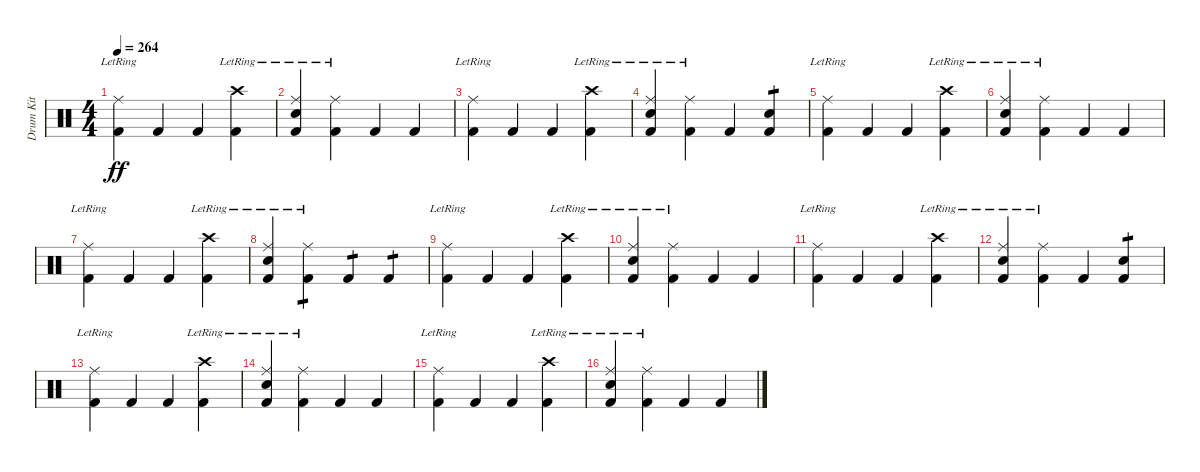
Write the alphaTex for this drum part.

\track ("Drum Kit" "Drum Kit") {instrument percussion}
\staff {score}
\articulation defaults
\ts (4 4)
\tempo 264
\clef neutral
\ks c
("Kick (hit) 2" "Ride (middle)"{lr}).4{dy ff} "Kick (hit) 2".4 "Kick (hit) 2".4 ("Kick (hit) 2" "Crash high (hit)"{lr}).4 |
("Kick (hit) 2" "Snare (hit) 2" "Ride (middle)"{lr}).4 ("Kick (hit) 2" "Ride (middle)"{lr}).4 "Kick (hit) 2".4 "Kick (hit) 2".4 |
("Kick (hit) 2" "Ride (middle)"{lr}).4 "Kick (hit) 2".4 "Kick (hit) 2".4 ("Kick (hit) 2" "Crash high (hit)"{lr}).4 |
("Kick (hit) 2" "Snare (hit) 2" "Ride (middle)"{lr}).4 ("Kick (hit) 2" "Ride (middle)"{lr}).4 "Kick (hit) 2".4 ("Kick (hit) 2" "Snare (hit) 2").4{tp 1} |
("Kick (hit) 2" "Ride (middle)"{lr}).4 "Kick (hit) 2".4 "Kick (hit) 2".4 ("Kick (hit) 2" "Crash high (hit)"{lr}).4 |
("Kick (hit) 2" "Snare (hit) 2" "Ride (middle)"{lr}).4 ("Kick (hit) 2" "Ride (middle)"{lr}).4 "Kick (hit) 2".4 "Kick (hit) 2".4 |
("Kick (hit) 2" "Ride (middle)"{lr}).4 "Kick (hit) 2".4 "Kick (hit) 2".4 ("Kick (hit) 2" "Crash high (hit)"{lr}).4 |
("Kick (hit) 2" "Snare (hit) 2" "Ride (middle)"{lr}).4 ("Kick (hit) 2" "Ride (middle)"{lr}).4{tp 1} "Kick (hit) 2".4{tp 1} "Kick (hit) 2".4{tp 1} |
("Kick (hit) 2" "Ride (middle)"{lr}).4 "Kick (hit) 2".4 "Kick (hit) 2".4 ("Kick (hit) 2" "Crash high (hit)"{lr}).4 |
("Kick (hit) 2" "Snare (hit) 2" "Ride (middle)"{lr}).4 ("Kick (hit) 2" "Ride (middle)"{lr}).4 "Kick (hit) 2".4 "Kick (hit) 2".4 |
("Kick (hit) 2" "Ride (middle)"{lr}).4 "Kick (hit) 2".4 "Kick (hit) 2".4 ("Kick (hit) 2" "Crash high (hit)"{lr}).4 |
("Kick (hit) 2" "Snare (hit) 2" "Ride (middle)"{lr}).4 ("Kick (hit) 2" "Ride (middle)"{lr}).4 "Kick (hit) 2".4 ("Kick (hit) 2" "Snare (hit) 2").4{tp 1} |
("Kick (hit) 2" "Ride (middle)"{lr}).4 "Kick (hit) 2".4 "Kick (hit) 2".4 ("Kick (hit) 2" "Crash high (hit)"{lr}).4 |
("Kick (hit) 2" "Snare (hit) 2" "Ride (middle)"{lr}).4 ("Kick (hit) 2" "Ride (middle)"{lr}).4 "Kick (hit) 2".4 "Kick (hit) 2".4 |
("Kick (hit) 2" "Ride (middle)"{lr}).4 "Kick (hit) 2".4 "Kick (hit) 2".4 ("Kick (hit) 2" "Crash high (hit)"{lr}).4 |
("Kick (hit) 2" "Snare (hit) 2" "Ride (middle)"{lr}).4 ("Kick (hit) 2" "Ride (middle)"{lr}).4 "Kick (hit) 2".4 "Kick (hit) 2".4
